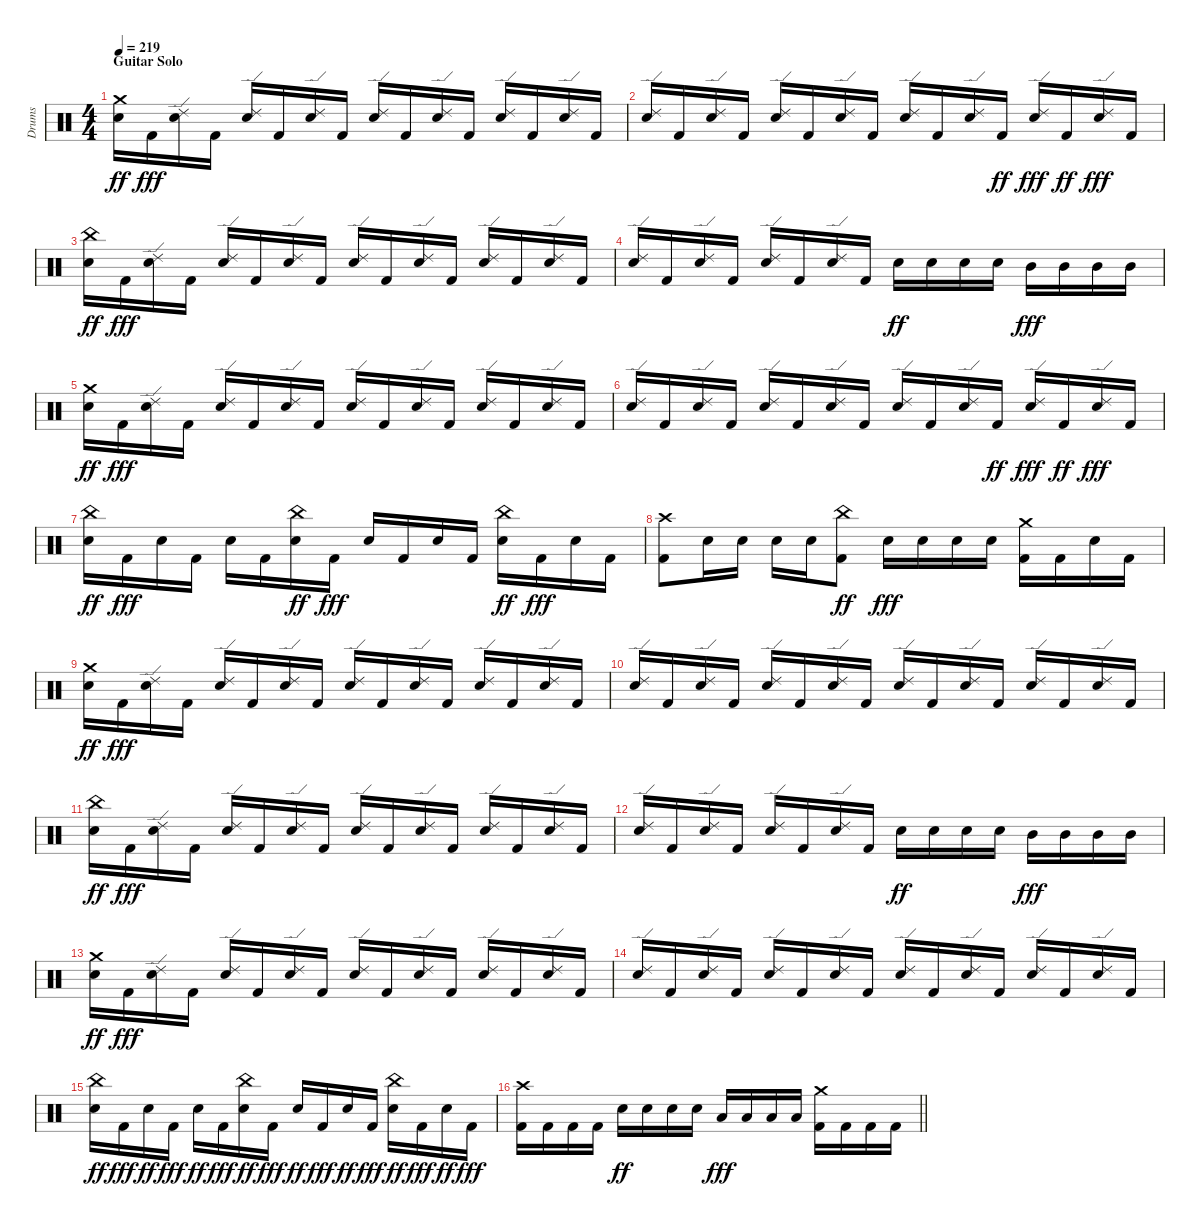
\track ("Drums" "Drums") {instrument percussion}
\staff {score}
\articulation defaults
\ts (4 4)
\section ("" "Guitar Solo")
\tempo 219
\clef neutral
\ks c
("Snare (hit) 2" "Crash medium (hit)").16{dy ff} "Kick (hit) 2".16{dy fff} ("Snare (hit) 2" "Ride (edge) 2").16 "Kick (hit) 2".16 ("Snare (hit) 2" "Ride (edge) 2").16 "Kick (hit) 2".16 ("Snare (hit) 2" "Ride (edge) 2").16 "Kick (hit) 2".16 ("Snare (hit) 2" "Ride (edge) 2").16 "Kick (hit) 2".16 ("Snare (hit) 2" "Ride (edge) 2").16 "Kick (hit) 2".16 ("Snare (hit) 2" "Ride (edge) 2").16 "Kick (hit) 2".16 ("Snare (hit) 2" "Ride (edge) 2").16 "Kick (hit) 2".16 |
("Snare (hit) 2" "Ride (edge) 2").16 "Kick (hit) 2".16 ("Snare (hit) 2" "Ride (edge) 2").16 "Kick (hit) 2".16 ("Snare (hit) 2" "Ride (edge) 2").16 "Kick (hit) 2".16 ("Snare (hit) 2" "Ride (edge) 2").16 "Kick (hit) 2".16 ("Snare (hit) 2" "Ride (edge) 2").16 "Kick (hit) 2".16 ("Snare (hit) 2" "Ride (edge) 2").16 "Kick (hit) 2".16{dy ff} ("Snare (hit) 2" "Ride (edge) 2").16{dy fff} "Kick (hit) 2".16{dy ff} ("Snare (hit) 2" "Ride (edge) 2").16{dy fff} "Kick (hit) 2".16 |
("Snare (hit) 2" "China (hit)").16{dy ff} "Kick (hit) 2".16{dy fff} ("Snare (hit) 2" "Ride (edge) 2").16 "Kick (hit) 2".16 ("Snare (hit) 2" "Ride (edge) 2").16 "Kick (hit) 2".16 ("Snare (hit) 2" "Ride (edge) 2").16 "Kick (hit) 2".16 ("Snare (hit) 2" "Ride (edge) 2").16 "Kick (hit) 2".16 ("Snare (hit) 2" "Ride (edge) 2").16 "Kick (hit) 2".16 ("Snare (hit) 2" "Ride (edge) 2").16 "Kick (hit) 2".16 ("Snare (hit) 2" "Ride (edge) 2").16 "Kick (hit) 2".16 |
("Snare (hit) 2" "Ride (edge) 2").16 "Kick (hit) 2".16 ("Snare (hit) 2" "Ride (edge) 2").16 "Kick (hit) 2".16 ("Snare (hit) 2" "Ride (edge) 2").16 "Kick (hit) 2".16 ("Snare (hit) 2" "Ride (edge) 2").16 "Kick (hit) 2".16 "Snare (hit) 2".16{dy ff} "Snare (hit) 2".16 "Snare (hit) 2".16 "Snare (hit) 2".16 "Mid Tom (hit)".16{dy fff} "Mid Tom (hit)".16 "Mid Tom (hit)".16 "Mid Tom (hit)".16 |
("Snare (hit) 2" "Crash medium (hit)").16{dy ff} "Kick (hit) 2".16{dy fff} ("Snare (hit) 2" "Ride (edge) 2").16 "Kick (hit) 2".16 ("Snare (hit) 2" "Ride (edge) 2").16 "Kick (hit) 2".16 ("Snare (hit) 2" "Ride (edge) 2").16 "Kick (hit) 2".16 ("Snare (hit) 2" "Ride (edge) 2").16 "Kick (hit) 2".16 ("Snare (hit) 2" "Ride (edge) 2").16 "Kick (hit) 2".16 ("Snare (hit) 2" "Ride (edge) 2").16 "Kick (hit) 2".16 ("Snare (hit) 2" "Ride (edge) 2").16 "Kick (hit) 2".16 |
("Snare (hit) 2" "Ride (edge) 2").16 "Kick (hit) 2".16 ("Snare (hit) 2" "Ride (edge) 2").16 "Kick (hit) 2".16 ("Snare (hit) 2" "Ride (edge) 2").16 "Kick (hit) 2".16 ("Snare (hit) 2" "Ride (edge) 2").16 "Kick (hit) 2".16 ("Snare (hit) 2" "Ride (edge) 2").16 "Kick (hit) 2".16 ("Snare (hit) 2" "Ride (edge) 2").16 "Kick (hit) 2".16{dy ff} ("Snare (hit) 2" "Ride (edge) 2").16{dy fff} "Kick (hit) 2".16{dy ff} ("Snare (hit) 2" "Ride (edge) 2").16{dy fff} "Kick (hit) 2".16 |
("Snare (hit) 2" "China (hit)").16{dy ff} "Kick (hit) 2".16{dy fff} "Snare (hit) 2".16 "Kick (hit) 2".16 "Snare (hit) 2".16 "Kick (hit) 2".16 ("Snare (hit) 2" "China (hit)").16{dy ff} "Kick (hit) 2".16{dy fff} "Snare (hit) 2".16 "Kick (hit) 2".16 "Snare (hit) 2".16 "Kick (hit) 2".16 ("Snare (hit) 2" "China (hit)").16{dy ff} "Kick (hit) 2".16{dy fff} "Snare (hit) 2".16 "Kick (hit) 2".16 |
("Kick (hit) 2" "Crash high (hit)").8 "Snare (hit) 2".16 "Snare (hit) 2".16 "Snare (hit) 2".16 "Snare (hit) 2".16 ("Kick (hit) 2" "China (hit)").8{dy ff} "Snare (hit) 2".16{dy fff} "Snare (hit) 2".16 "Snare (hit) 2".16 "Snare (hit) 2".16 ("Kick (hit) 2" "Crash medium (hit)").16 "Kick (hit) 2".16 "Snare (hit) 2".16 "Kick (hit) 2".16 |
("Snare (hit) 2" "Crash medium (hit)").16{dy ff} "Kick (hit) 2".16{dy fff} ("Snare (hit) 2" "Ride (edge) 2").16 "Kick (hit) 2".16 ("Snare (hit) 2" "Ride (edge) 2").16 "Kick (hit) 2".16 ("Snare (hit) 2" "Ride (edge) 2").16 "Kick (hit) 2".16 ("Snare (hit) 2" "Ride (edge) 2").16 "Kick (hit) 2".16 ("Snare (hit) 2" "Ride (edge) 2").16 "Kick (hit) 2".16 ("Snare (hit) 2" "Ride (edge) 2").16 "Kick (hit) 2".16 ("Snare (hit) 2" "Ride (edge) 2").16 "Kick (hit) 2".16 |
("Snare (hit) 2" "Ride (edge) 2").16 "Kick (hit) 2".16 ("Snare (hit) 2" "Ride (edge) 2").16 "Kick (hit) 2".16 ("Snare (hit) 2" "Ride (edge) 2").16 "Kick (hit) 2".16 ("Snare (hit) 2" "Ride (edge) 2").16 "Kick (hit) 2".16 ("Snare (hit) 2" "Ride (edge) 2").16 "Kick (hit) 2".16 ("Snare (hit) 2" "Ride (edge) 2").16 "Kick (hit) 2".16 ("Snare (hit) 2" "Ride (edge) 2").16 "Kick (hit) 2".16 ("Snare (hit) 2" "Ride (edge) 2").16 "Kick (hit) 2".16 |
("Snare (hit) 2" "China (hit)").16{dy ff} "Kick (hit) 2".16{dy fff} ("Snare (hit) 2" "Ride (edge) 2").16 "Kick (hit) 2".16 ("Snare (hit) 2" "Ride (edge) 2").16 "Kick (hit) 2".16 ("Snare (hit) 2" "Ride (edge) 2").16 "Kick (hit) 2".16 ("Snare (hit) 2" "Ride (edge) 2").16 "Kick (hit) 2".16 ("Snare (hit) 2" "Ride (edge) 2").16 "Kick (hit) 2".16 ("Snare (hit) 2" "Ride (edge) 2").16 "Kick (hit) 2".16 ("Snare (hit) 2" "Ride (edge) 2").16 "Kick (hit) 2".16 |
("Snare (hit) 2" "Ride (edge) 2").16 "Kick (hit) 2".16 ("Snare (hit) 2" "Ride (edge) 2").16 "Kick (hit) 2".16 ("Snare (hit) 2" "Ride (edge) 2").16 "Kick (hit) 2".16 ("Snare (hit) 2" "Ride (edge) 2").16 "Kick (hit) 2".16 "Snare (hit) 2".16{dy ff} "Snare (hit) 2".16 "Snare (hit) 2".16 "Snare (hit) 2".16 "Mid Tom (hit)".16{dy fff} "Mid Tom (hit)".16 "Mid Tom (hit)".16 "Mid Tom (hit)".16 |
("Snare (hit) 2" "Crash medium (hit)").16{dy ff} "Kick (hit) 2".16{dy fff} ("Snare (hit) 2" "Ride (edge) 2").16 "Kick (hit) 2".16 ("Snare (hit) 2" "Ride (edge) 2").16 "Kick (hit) 2".16 ("Snare (hit) 2" "Ride (edge) 2").16 "Kick (hit) 2".16 ("Snare (hit) 2" "Ride (edge) 2").16 "Kick (hit) 2".16 ("Snare (hit) 2" "Ride (edge) 2").16 "Kick (hit) 2".16 ("Snare (hit) 2" "Ride (edge) 2").16 "Kick (hit) 2".16 ("Snare (hit) 2" "Ride (edge) 2").16 "Kick (hit) 2".16 |
("Snare (hit) 2" "Ride (edge) 2").16 "Kick (hit) 2".16 ("Snare (hit) 2" "Ride (edge) 2").16 "Kick (hit) 2".16 ("Snare (hit) 2" "Ride (edge) 2").16 "Kick (hit) 2".16 ("Snare (hit) 2" "Ride (edge) 2").16 "Kick (hit) 2".16 ("Snare (hit) 2" "Ride (edge) 2").16 "Kick (hit) 2".16 ("Snare (hit) 2" "Ride (edge) 2").16 "Kick (hit) 2".16 ("Snare (hit) 2" "Ride (edge) 2").16 "Kick (hit) 2".16 ("Snare (hit) 2" "Ride (edge) 2").16 "Kick (hit) 2".16 |
("Snare (hit) 2" "China (hit)").16{dy ff} "Kick (hit) 2".16{dy fff} "Snare (hit) 2".16{dy ff} "Kick (hit) 2".16{dy fff} "Snare (hit) 2".16{dy ff} "Kick (hit) 2".16{dy fff} ("Snare (hit) 2" "China (hit)").16{dy ff} "Kick (hit) 2".16{dy fff} "Snare (hit) 2".16{dy ff} "Kick (hit) 2".16{dy fff} "Snare (hit) 2".16{dy ff} "Kick (hit) 2".16{dy fff} ("Snare (hit) 2" "China (hit)").16{dy ff} "Kick (hit) 2".16{dy fff} "Snare (hit) 2".16{dy ff} "Kick (hit) 2".16{dy fff} |
\barLineRight lightlight
("Kick (hit) 2" "Crash high (hit)").16 "Kick (hit) 2".16 "Kick (hit) 2".16 "Kick (hit) 2".16 "Snare (hit) 2".16{dy ff} "Snare (hit) 2".16 "Snare (hit) 2".16 "Snare (hit) 2".16 "Low Tom (hit)".16{dy fff} "Low Tom (hit)".16 "Low Tom (hit)".16 "Low Tom (hit)".16 ("Kick (hit) 2" "Crash medium (hit)").16 "Kick (hit) 2".16 "Kick (hit) 2".16 "Kick (hit) 2".16
